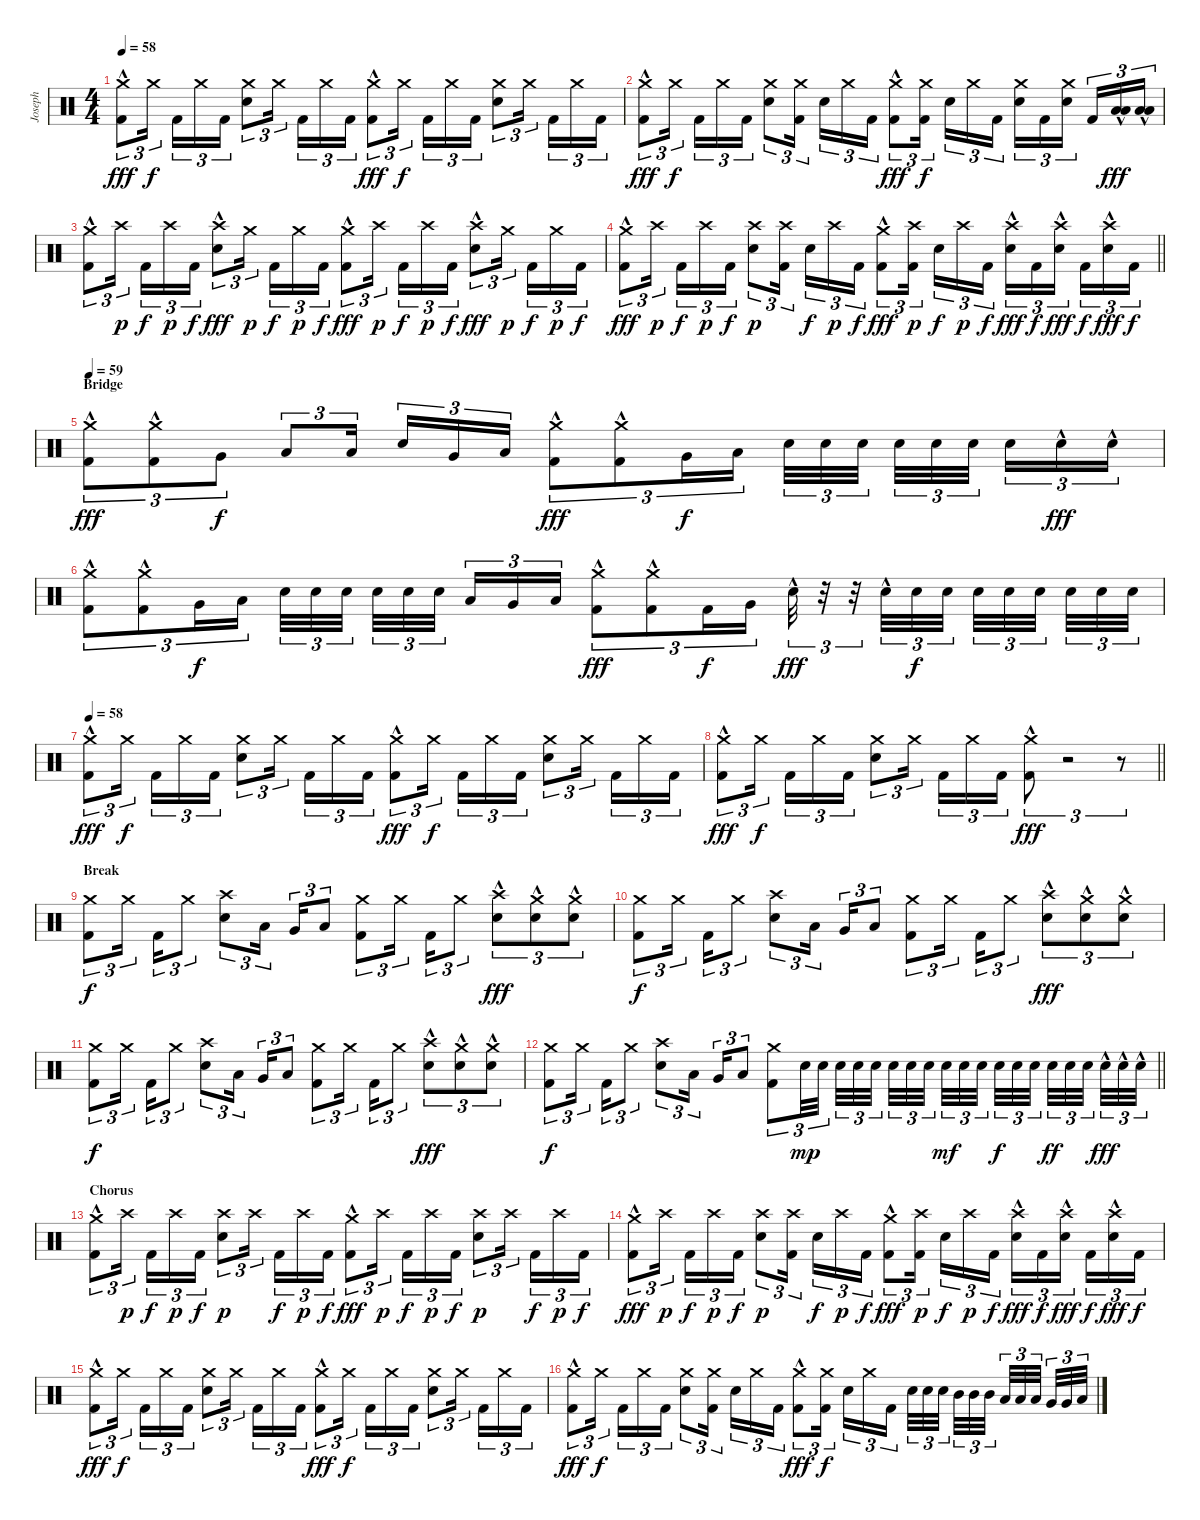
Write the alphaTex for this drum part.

\track ("Joseph" "Joseph") {instrument percussion}
\staff {score}
\articulation defaults
\ts (4 4)
\tempo 58
\clef neutral
\ks c
("Crash medium (hit)"{hac} "Kick (hit) 2").8{tu (3 2) dy fff} "Crash medium (hit)".16{tu (3 2) dy f beam splitsecondary} "Kick (hit) 2".16{tu (3 2)} "Crash medium (hit)".16{tu (3 2)} "Kick (hit) 2".16{tu (3 2)} ("Crash medium (hit)" "Electric Snare (hit)").8{tu (3 2)} "Crash medium (hit)".16{tu (3 2) beam splitsecondary} "Kick (hit) 2".16{tu (3 2)} "Crash medium (hit)".16{tu (3 2)} "Kick (hit) 2".16{tu (3 2)} ("Crash medium (hit)"{hac} "Kick (hit) 2").8{tu (3 2) dy fff} "Crash medium (hit)".16{tu (3 2) dy f beam splitsecondary} "Kick (hit) 2".16{tu (3 2)} "Crash medium (hit)".16{tu (3 2)} "Kick (hit) 2".16{tu (3 2)} ("Crash medium (hit)" "Electric Snare (hit)").8{tu (3 2)} "Crash medium (hit)".16{tu (3 2) beam splitsecondary} "Kick (hit) 2".16{tu (3 2)} "Crash medium (hit)".16{tu (3 2)} "Kick (hit) 2".16{tu (3 2)} |
("Crash medium (hit)"{hac} "Kick (hit) 2").8{tu (3 2) dy fff} "Crash medium (hit)".16{tu (3 2) dy f beam splitsecondary} "Kick (hit) 2".16{tu (3 2)} "Crash medium (hit)".16{tu (3 2)} "Kick (hit) 2".16{tu (3 2)} ("Crash medium (hit)" "Electric Snare (hit)").8{tu (3 2)} ("Crash medium (hit)" "Kick (hit) 2").16{tu (3 2) beam splitsecondary} "Electric Snare (hit)".16{tu (3 2)} "Crash medium (hit)".16{tu (3 2)} "Kick (hit) 2".16{tu (3 2)} ("Crash medium (hit)"{hac} "Kick (hit) 2").8{tu (3 2) dy fff} ("Crash medium (hit)" "Kick (hit) 2").16{tu (3 2) dy f beam splitsecondary} "Electric Snare (hit)".16{tu (3 2)} "Crash medium (hit)".16{tu (3 2)} "Kick (hit) 2".16{tu (3 2)} ("Crash medium (hit)" "Electric Snare (hit)").16{tu (3 2)} "Kick (hit) 2".16{tu (3 2)} ("Crash medium (hit)" "Electric Snare (hit)").16{tu (3 2) beam splitsecondary} "Kick (hit) 2".16{tu (3 2)} ("Low Tom (hit)"{hac} "Low Tom (hit)"{hac}).16{tu (3 2) dy fff} ("Low Floor Tom (hit)"{hac} "Low Floor Tom (hit)"{hac}).16{tu (3 2)} |
("Crash medium (hit)"{hac} "Kick (hit) 2").8{tu (3 2)} "Crash high (hit)".16{tu (3 2) dy p beam splitsecondary} "Kick (hit) 2".16{tu (3 2) dy f} "Crash high (hit)".16{tu (3 2) dy p} "Kick (hit) 2".16{tu (3 2) dy f} ("Crash high (hit)"{hac} "Electric Snare (hit)").8{tu (3 2) dy fff} "Crash medium (hit)".16{tu (3 2) dy p beam splitsecondary} "Kick (hit) 2".16{tu (3 2) dy f} "Crash medium (hit)".16{tu (3 2) dy p} "Kick (hit) 2".16{tu (3 2) dy f} ("Crash medium (hit)"{hac} "Kick (hit) 2").8{tu (3 2) dy fff} "Crash high (hit)".16{tu (3 2) dy p beam splitsecondary} "Kick (hit) 2".16{tu (3 2) dy f} "Crash high (hit)".16{tu (3 2) dy p} "Kick (hit) 2".16{tu (3 2) dy f} ("Crash high (hit)"{hac} "Electric Snare (hit)").8{tu (3 2) dy fff} "Crash medium (hit)".16{tu (3 2) dy p beam splitsecondary} "Kick (hit) 2".16{tu (3 2) dy f} "Crash medium (hit)".16{tu (3 2) dy p} "Kick (hit) 2".16{tu (3 2) dy f} |
\barLineRight lightlight
("Crash medium (hit)"{hac} "Kick (hit) 2").8{tu (3 2) dy fff} "Crash high (hit)".16{tu (3 2) dy p beam splitsecondary} "Kick (hit) 2".16{tu (3 2) dy f} "Crash high (hit)".16{tu (3 2) dy p} "Kick (hit) 2".16{tu (3 2) dy f} ("Crash high (hit)" "Electric Snare (hit)").8{tu (3 2) dy p} ("Crash high (hit)" "Kick (hit) 2").16{tu (3 2) beam splitsecondary} "Electric Snare (hit)".16{tu (3 2) dy f} "Crash high (hit)".16{tu (3 2) dy p} "Kick (hit) 2".16{tu (3 2) dy f} ("Crash medium (hit)"{hac} "Kick (hit) 2").8{tu (3 2) dy fff} ("Crash high (hit)" "Kick (hit) 2").16{tu (3 2) dy p beam splitsecondary} "Electric Snare (hit)".16{tu (3 2) dy f} "Crash high (hit)".16{tu (3 2) dy p} "Kick (hit) 2".16{tu (3 2) dy f} ("Crash high (hit)" "Electric Snare (hit)"{hac}).16{tu (3 2) dy fff} "Kick (hit) 2".16{tu (3 2) dy f} ("Crash high (hit)" "Electric Snare (hit)"{hac}).16{tu (3 2) dy fff beam splitsecondary} "Kick (hit) 2".16{tu (3 2) dy f} ("Crash high (hit)" "Electric Snare (hit)"{hac}).16{tu (3 2) dy fff} "Kick (hit) 2".16{tu (3 2) dy f} |
\section ("" "Bridge")
\tempo 59
("Crash medium (hit)"{hac} "Kick (hit) 2"{hac}).8{tu (3 2) dy fff} ("Crash medium (hit)"{hac} "Kick (hit) 2"{hac}).8{tu (3 2)} "Very Low Tom (hit)".8{tu (3 2) dy f} "Low Tom (hit)".8{tu (3 2)} "Low Floor Tom (hit)".16{tu (3 2) beam splitsecondary} "Electric Snare (hit)".16{tu (3 2)} "Very Low Tom (hit)".16{tu (3 2)} "Low Tom (hit)".16{tu (3 2)} ("Crash medium (hit)"{hac} "Kick (hit) 2"{hac}).8{tu (3 2) dy fff} ("Crash medium (hit)"{hac} "Kick (hit) 2"{hac}).8{tu (3 2)} "Very Low Tom (hit)".16{tu (3 2) dy f} "Low Tom (hit)".16{tu (3 2)} "Electric Snare (hit)".32{tu (3 2)} "Electric Snare (hit)".32{tu (3 2)} "Electric Snare (hit)".32{tu (3 2) beam splitsecondary} "Electric Snare (hit)".32{tu (3 2)} "Electric Snare (hit)".32{tu (3 2)} "Electric Snare (hit)".32{tu (3 2) beam splitsecondary} "Electric Snare (hit)".16{tu (3 2)} "Electric Snare (hit)"{hac}.16{tu (3 2) dy fff} "Electric Snare (hit)"{hac}.16{tu (3 2)} |
("Crash medium (hit)"{hac} "Kick (hit) 2"{hac}).8{tu (3 2)} ("Crash medium (hit)"{hac} "Kick (hit) 2"{hac}).8{tu (3 2)} "Very Low Tom (hit)".16{tu (3 2) dy f} "Low Tom (hit)".16{tu (3 2)} "Electric Snare (hit)".32{tu (3 2)} "Electric Snare (hit)".32{tu (3 2)} "Electric Snare (hit)".32{tu (3 2) beam splitsecondary} "Electric Snare (hit)".32{tu (3 2)} "Electric Snare (hit)".32{tu (3 2)} "Electric Snare (hit)".32{tu (3 2) beam splitsecondary} "Low Tom (hit)".16{tu (3 2)} "Very Low Tom (hit)".16{tu (3 2)} "Low Floor Tom (hit)".16{tu (3 2)} ("Crash medium (hit)"{hac} "Kick (hit) 2"{hac}).8{tu (3 2) dy fff} ("Crash medium (hit)"{hac} "Kick (hit) 2"{hac}).8{tu (3 2)} "Kick (hit) 2".16{tu (3 2) dy f} "Very Low Tom (hit)".16{tu (3 2)} "Electric Snare (hit)"{hac}.32{tu (3 2) dy fff} r.32{tu (3 2)} r.32{tu (3 2)} "Electric Snare (hit)"{hac}.32{tu (3 2)} "Electric Snare (hit)".32{tu (3 2) dy f} "Electric Snare (hit)".32{tu (3 2) beam splitsecondary} "Electric Snare (hit)".32{tu (3 2)} "Electric Snare (hit)".32{tu (3 2)} "Electric Snare (hit)".32{tu (3 2) beam splitsecondary} "Electric Snare (hit)".32{tu (3 2)} "Electric Snare (hit)".32{tu (3 2)} "Electric Snare (hit)".32{tu (3 2)} |
\tempo 58
("Crash medium (hit)"{hac} "Kick (hit) 2").8{tu (3 2) dy fff} "Crash medium (hit)".16{tu (3 2) dy f beam splitsecondary} "Kick (hit) 2".16{tu (3 2)} "Crash medium (hit)".16{tu (3 2)} "Kick (hit) 2".16{tu (3 2)} ("Crash medium (hit)" "Electric Snare (hit)").8{tu (3 2)} "Crash medium (hit)".16{tu (3 2) beam splitsecondary} "Kick (hit) 2".16{tu (3 2)} "Crash medium (hit)".16{tu (3 2)} "Kick (hit) 2".16{tu (3 2)} ("Crash medium (hit)"{hac} "Kick (hit) 2").8{tu (3 2) dy fff} "Crash medium (hit)".16{tu (3 2) dy f beam splitsecondary} "Kick (hit) 2".16{tu (3 2)} "Crash medium (hit)".16{tu (3 2)} "Kick (hit) 2".16{tu (3 2)} ("Crash medium (hit)" "Electric Snare (hit)").8{tu (3 2)} "Crash medium (hit)".16{tu (3 2) beam splitsecondary} "Kick (hit) 2".16{tu (3 2)} "Crash medium (hit)".16{tu (3 2)} "Kick (hit) 2".16{tu (3 2)} |
\barLineRight lightlight
("Crash medium (hit)"{hac} "Kick (hit) 2").8{tu (3 2) dy fff} "Crash medium (hit)".16{tu (3 2) dy f beam splitsecondary} "Kick (hit) 2".16{tu (3 2)} "Crash medium (hit)".16{tu (3 2)} "Kick (hit) 2".16{tu (3 2)} ("Crash medium (hit)" "Electric Snare (hit)").8{tu (3 2)} "Crash medium (hit)".16{tu (3 2) beam splitsecondary} "Kick (hit) 2".16{tu (3 2)} "Crash medium (hit)".16{tu (3 2)} "Kick (hit) 2".16{tu (3 2)} ("Crash medium (hit)"{hac} "Kick (hit) 2").8{tu (3 2) dy fff} r.2{tu (3 2) volume 1} r.8{tu (3 2)} |
\section ("" "Break")
("Crash medium (hit)" "Kick (hit) 2").8{tu (3 2) dy f volume 12} "Crash medium (hit)".16{tu (3 2) beam splitsecondary} "Kick (hit) 2".16{tu (3 2)} "Crash medium (hit)".8{tu (3 2)} ("Crash high (hit)" "Electric Snare (hit)").8{tu (3 2)} "Low Tom (hit)".16{tu (3 2) beam splitsecondary} "Very Low Tom (hit)".16{tu (3 2)} "Low Floor Tom (hit)".8{tu (3 2)} ("Crash medium (hit)" "Kick (hit) 2").8{tu (3 2)} "Crash medium (hit)".16{tu (3 2) beam splitsecondary} "Kick (hit) 2".16{tu (3 2)} "Crash medium (hit)".8{tu (3 2)} ("Crash high (hit)" "Electric Snare (hit)"{hac}).8{tu (3 2) dy fff} ("Crash medium (hit)" "Electric Snare (hit)"{hac}).8{tu (3 2)} ("Crash medium (hit)" "Electric Snare (hit)"{hac}).8{tu (3 2)} |
("Crash medium (hit)" "Kick (hit) 2").8{tu (3 2) dy f} "Crash medium (hit)".16{tu (3 2) beam splitsecondary} "Kick (hit) 2".16{tu (3 2)} "Crash medium (hit)".8{tu (3 2)} ("Crash high (hit)" "Electric Snare (hit)").8{tu (3 2)} "Low Tom (hit)".16{tu (3 2) beam splitsecondary} "Very Low Tom (hit)".16{tu (3 2)} "Low Floor Tom (hit)".8{tu (3 2)} ("Crash medium (hit)" "Kick (hit) 2").8{tu (3 2)} "Crash medium (hit)".16{tu (3 2) beam splitsecondary} "Kick (hit) 2".16{tu (3 2)} "Crash medium (hit)".8{tu (3 2)} ("Crash high (hit)" "Electric Snare (hit)"{hac}).8{tu (3 2) dy fff} ("Crash medium (hit)" "Electric Snare (hit)"{hac}).8{tu (3 2)} ("Crash medium (hit)" "Electric Snare (hit)"{hac}).8{tu (3 2)} |
("Crash medium (hit)" "Kick (hit) 2").8{tu (3 2) dy f} "Crash medium (hit)".16{tu (3 2) beam splitsecondary} "Kick (hit) 2".16{tu (3 2)} "Crash medium (hit)".8{tu (3 2)} ("Crash high (hit)" "Electric Snare (hit)").8{tu (3 2)} "Low Tom (hit)".16{tu (3 2) beam splitsecondary} "Very Low Tom (hit)".16{tu (3 2)} "Low Floor Tom (hit)".8{tu (3 2)} ("Crash medium (hit)" "Kick (hit) 2").8{tu (3 2)} "Crash medium (hit)".16{tu (3 2) beam splitsecondary} "Kick (hit) 2".16{tu (3 2)} "Crash medium (hit)".8{tu (3 2)} ("Crash high (hit)" "Electric Snare (hit)"{hac}).8{tu (3 2) dy fff} ("Crash medium (hit)" "Electric Snare (hit)"{hac}).8{tu (3 2)} ("Crash medium (hit)" "Electric Snare (hit)"{hac}).8{tu (3 2)} |
\barLineRight lightlight
("Crash medium (hit)" "Kick (hit) 2").8{tu (3 2) dy f} "Crash medium (hit)".16{tu (3 2) beam splitsecondary} "Kick (hit) 2".16{tu (3 2)} "Crash medium (hit)".8{tu (3 2)} ("Crash high (hit)" "Electric Snare (hit)").8{tu (3 2)} "Low Tom (hit)".16{tu (3 2) beam splitsecondary} "Very Low Tom (hit)".16{tu (3 2)} "Low Floor Tom (hit)".8{tu (3 2)} ("Crash medium (hit)" "Kick (hit) 2").8{tu (3 2)} "Electric Snare (hit)".32{tu (3 2) dy mp} "Electric Snare (hit)".32{tu (3 2) beam splitsecondary} "Electric Snare (hit)".32{tu (3 2)} "Electric Snare (hit)".32{tu (3 2)} "Electric Snare (hit)".32{tu (3 2) beam splitsecondary} "Electric Snare (hit)".32{tu (3 2)} "Electric Snare (hit)".32{tu (3 2)} "Electric Snare (hit)".32{tu (3 2)} "Electric Snare (hit)".32{tu (3 2) dy mf} "Electric Snare (hit)".32{tu (3 2)} "Electric Snare (hit)".32{tu (3 2) beam splitsecondary} "Electric Snare (hit)".32{tu (3 2) dy f} "Electric Snare (hit)".32{tu (3 2)} "Electric Snare (hit)".32{tu (3 2) beam splitsecondary} "Electric Snare (hit)".32{tu (3 2) dy ff} "Electric Snare (hit)".32{tu (3 2)} "Electric Snare (hit)".32{tu (3 2) beam splitsecondary} "Electric Snare (hit)"{hac}.32{tu (3 2) dy fff} "Electric Snare (hit)"{hac}.32{tu (3 2)} "Electric Snare (hit)"{hac}.32{tu (3 2)} |
\section ("" "Chorus")
("Crash medium (hit)"{hac} "Kick (hit) 2").8{tu (3 2)} "Crash high (hit)".16{tu (3 2) dy p beam splitsecondary} "Kick (hit) 2".16{tu (3 2) dy f} "Crash high (hit)".16{tu (3 2) dy p} "Kick (hit) 2".16{tu (3 2) dy f} ("Crash high (hit)" "Electric Snare (hit)").8{tu (3 2) dy p} "Crash high (hit)".16{tu (3 2) beam splitsecondary} "Kick (hit) 2".16{tu (3 2) dy f} "Crash high (hit)".16{tu (3 2) dy p} "Kick (hit) 2".16{tu (3 2) dy f} ("Crash medium (hit)"{hac} "Kick (hit) 2").8{tu (3 2) dy fff} "Crash high (hit)".16{tu (3 2) dy p beam splitsecondary} "Kick (hit) 2".16{tu (3 2) dy f} "Crash high (hit)".16{tu (3 2) dy p} "Kick (hit) 2".16{tu (3 2) dy f} ("Crash high (hit)" "Electric Snare (hit)").8{tu (3 2) dy p} "Crash high (hit)".16{tu (3 2) beam splitsecondary} "Kick (hit) 2".16{tu (3 2) dy f} "Crash high (hit)".16{tu (3 2) dy p} "Kick (hit) 2".16{tu (3 2) dy f} |
("Crash medium (hit)"{hac} "Kick (hit) 2").8{tu (3 2) dy fff} "Crash high (hit)".16{tu (3 2) dy p beam splitsecondary} "Kick (hit) 2".16{tu (3 2) dy f} "Crash high (hit)".16{tu (3 2) dy p} "Kick (hit) 2".16{tu (3 2) dy f} ("Crash high (hit)" "Electric Snare (hit)").8{tu (3 2) dy p} ("Crash high (hit)" "Kick (hit) 2").16{tu (3 2) beam splitsecondary} "Electric Snare (hit)".16{tu (3 2) dy f} "Crash high (hit)".16{tu (3 2) dy p} "Kick (hit) 2".16{tu (3 2) dy f} ("Crash medium (hit)"{hac} "Kick (hit) 2").8{tu (3 2) dy fff} ("Crash high (hit)" "Kick (hit) 2").16{tu (3 2) dy p beam splitsecondary} "Electric Snare (hit)".16{tu (3 2) dy f} "Crash high (hit)".16{tu (3 2) dy p} "Kick (hit) 2".16{tu (3 2) dy f} ("Crash high (hit)" "Electric Snare (hit)"{hac}).16{tu (3 2) dy fff} "Kick (hit) 2".16{tu (3 2) dy f} ("Crash high (hit)" "Electric Snare (hit)"{hac}).16{tu (3 2) dy fff beam splitsecondary} "Kick (hit) 2".16{tu (3 2) dy f} ("Crash high (hit)" "Electric Snare (hit)"{hac}).16{tu (3 2) dy fff} "Kick (hit) 2".16{tu (3 2) dy f} |
("Crash medium (hit)"{hac} "Kick (hit) 2").8{tu (3 2) dy fff} "Crash medium (hit)".16{tu (3 2) dy f beam splitsecondary} "Kick (hit) 2".16{tu (3 2)} "Crash medium (hit)".16{tu (3 2)} "Kick (hit) 2".16{tu (3 2)} ("Crash medium (hit)" "Electric Snare (hit)").8{tu (3 2)} "Crash medium (hit)".16{tu (3 2) beam splitsecondary} "Kick (hit) 2".16{tu (3 2)} "Crash medium (hit)".16{tu (3 2)} "Kick (hit) 2".16{tu (3 2)} ("Crash medium (hit)"{hac} "Kick (hit) 2").8{tu (3 2) dy fff} "Crash medium (hit)".16{tu (3 2) dy f beam splitsecondary} "Kick (hit) 2".16{tu (3 2)} "Crash medium (hit)".16{tu (3 2)} "Kick (hit) 2".16{tu (3 2)} ("Crash medium (hit)" "Electric Snare (hit)").8{tu (3 2)} "Crash medium (hit)".16{tu (3 2) beam splitsecondary} "Kick (hit) 2".16{tu (3 2)} "Crash medium (hit)".16{tu (3 2)} "Kick (hit) 2".16{tu (3 2)} |
("Crash medium (hit)"{hac} "Kick (hit) 2").8{tu (3 2) dy fff} "Crash medium (hit)".16{tu (3 2) dy f beam splitsecondary} "Kick (hit) 2".16{tu (3 2)} "Crash medium (hit)".16{tu (3 2)} "Kick (hit) 2".16{tu (3 2)} ("Crash medium (hit)" "Electric Snare (hit)").8{tu (3 2)} ("Crash medium (hit)" "Kick (hit) 2").16{tu (3 2) beam splitsecondary} "Electric Snare (hit)".16{tu (3 2)} "Crash medium (hit)".16{tu (3 2)} "Kick (hit) 2".16{tu (3 2)} ("Crash medium (hit)"{hac} "Kick (hit) 2").8{tu (3 2) dy fff} ("Crash medium (hit)" "Kick (hit) 2").16{tu (3 2) dy f beam splitsecondary} "Electric Snare (hit)".16{tu (3 2)} "Crash medium (hit)".16{tu (3 2)} "Kick (hit) 2".16{tu (3 2)} "Electric Snare (hit)".32{tu (3 2)} "Electric Snare (hit)".32{tu (3 2)} "Electric Snare (hit)".32{tu (3 2) beam splitsecondary} "Mid Tom (hit)".32{tu (3 2)} "Mid Tom (hit)".32{tu (3 2)} "Mid Tom (hit)".32{tu (3 2) beam splitsecondary} "Low Tom (hit)".32{tu (3 2)} "Low Tom (hit)".32{tu (3 2)} "Low Tom (hit)".32{tu (3 2) beam splitsecondary} "Very Low Tom (hit)".32{tu (3 2)} "Very Low Tom (hit)".32{tu (3 2)} "Low Floor Tom (hit)".32{tu (3 2)}
